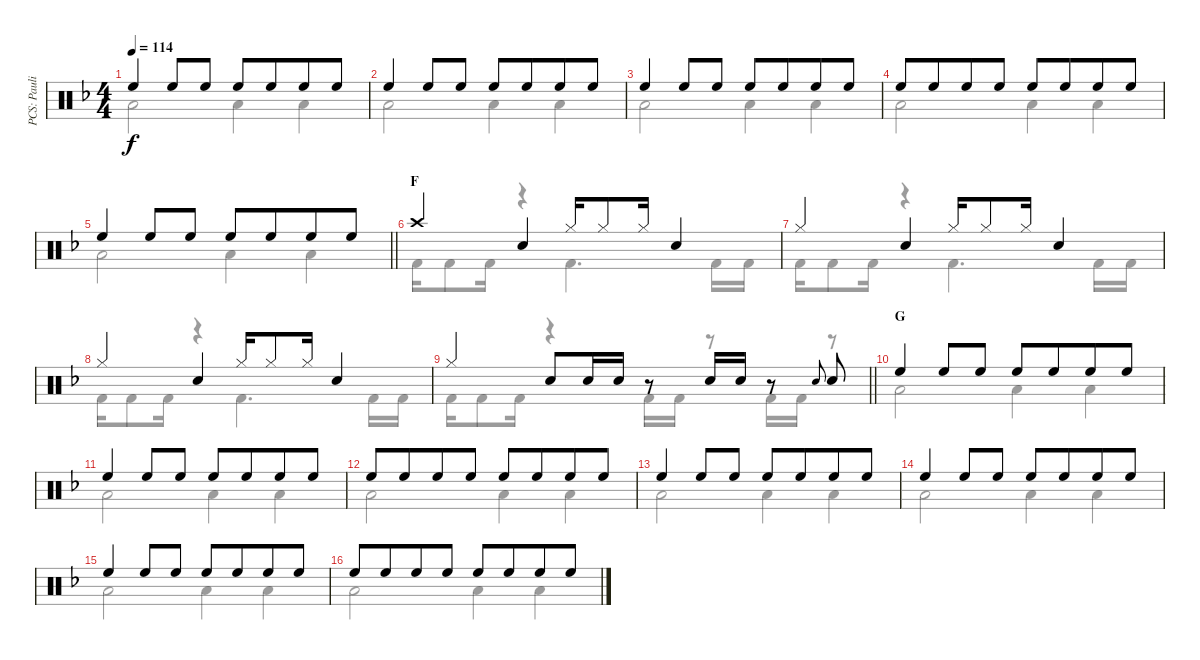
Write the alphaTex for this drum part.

\track ("PCS: Paulinho da Costa" "PCS: Pauli") {instrument percussion}
\staff {score}
\articulation defaults
\voice
\ts (4 4)
\tempo 114
\clef neutral
\ks f "High Floor Tom (hit)".4{dy f} "High Floor Tom (hit)".8 "High Floor Tom (hit)".8 "High Floor Tom (hit)".8 "High Floor Tom (hit)".8{beam merge} "High Floor Tom (hit)".8 "High Floor Tom (hit)".8
|
"High Floor Tom (hit)".4 "High Floor Tom (hit)".8 "High Floor Tom (hit)".8 "High Floor Tom (hit)".8 "High Floor Tom (hit)".8{beam merge} "High Floor Tom (hit)".8 "High Floor Tom (hit)".8 |
"High Floor Tom (hit)".4 "High Floor Tom (hit)".8 "High Floor Tom (hit)".8 "High Floor Tom (hit)".8 "High Floor Tom (hit)".8{beam merge} "High Floor Tom (hit)".8 "High Floor Tom (hit)".8 |
"High Floor Tom (hit)".8 "High Floor Tom (hit)".8{beam merge} "High Floor Tom (hit)".8 "High Floor Tom (hit)".8 "High Floor Tom (hit)".8{beam merge} "High Floor Tom (hit)".8{beam merge} "High Floor Tom (hit)".8 "High Floor Tom (hit)".8 |
\barLineRight lightlight "High Floor Tom (hit)".4 "High Floor Tom (hit)".8 "High Floor Tom (hit)".8 "High Floor Tom (hit)".8 "High Floor Tom (hit)".8{beam merge} "High Floor Tom (hit)".8 "High Floor Tom (hit)".8
|
\section ("" "F")
"Crash high (hit)".4 "Snare (hit) 2".4 "Hi-Hat (closed)".16 "Hi-Hat (closed)".8 "Hi-Hat (closed)".16 "Snare (hit) 2".4 |
"Hi-Hat (closed)".4 "Snare (hit) 2".4 "Hi-Hat (closed)".16 "Hi-Hat (closed)".8 "Hi-Hat (closed)".16 "Snare (hit) 2".4 |
"Hi-Hat (closed)".4 "Snare (hit) 2".4 "Hi-Hat (closed)".16 "Hi-Hat (closed)".8 "Hi-Hat (closed)".16 "Snare (hit) 2".4 |
\barLineRight lightlight "Hi-Hat (closed)".4 "Snare (hit) 2".8 "Electric Snare (hit)".16 "Electric Snare (hit)".16
r.8 "Electric Snare (hit)".16 "Electric Snare (hit)".16 r.8 "Electric Snare (hit)".8{gr onbeat} "Snare (hit) 2".8 |
\section ("" "G")
"High Floor Tom (hit)".4 "High Floor Tom (hit)".8 "High Floor Tom (hit)".8 "High Floor Tom (hit)".8 "High Floor Tom (hit)".8{beam merge} "High Floor Tom (hit)".8 "High Floor Tom (hit)".8 |
"High Floor Tom (hit)".4 "High Floor Tom (hit)".8 "High Floor Tom (hit)".8 "High Floor Tom (hit)".8 "High Floor Tom (hit)".8{beam merge} "High Floor Tom (hit)".8 "High Floor Tom (hit)".8 |
"High Floor Tom (hit)".8 "High Floor Tom (hit)".8{beam merge} "High Floor Tom (hit)".8 "High Floor Tom (hit)".8 "High Floor Tom (hit)".8{beam merge} "High Floor Tom (hit)".8{beam merge} "High Floor Tom (hit)".8 "High Floor Tom (hit)".8 |
"High Floor Tom (hit)".4 "High Floor Tom (hit)".8 "High Floor Tom (hit)".8 "High Floor Tom (hit)".8 "High Floor Tom (hit)".8{beam merge} "High Floor Tom (hit)".8 "High Floor Tom (hit)".8 |
"High Floor Tom (hit)".4 "High Floor Tom (hit)".8 "High Floor Tom (hit)".8 "High Floor Tom (hit)".8 "High Floor Tom (hit)".8{beam merge} "High Floor Tom (hit)".8 "High Floor Tom (hit)".8 |
"High Floor Tom (hit)".4 "High Floor Tom (hit)".8 "High Floor Tom (hit)".8 "High Floor Tom (hit)".8 "High Floor Tom (hit)".8{beam merge} "High Floor Tom (hit)".8 "High Floor Tom (hit)".8 |
"High Floor Tom (hit)".8 "High Floor Tom (hit)".8{beam merge} "High Floor Tom (hit)".8 "High Floor Tom (hit)".8 "High Floor Tom (hit)".8{beam merge} "High Floor Tom (hit)".8{beam merge} "High Floor Tom (hit)".8 "High Floor Tom (hit)".8
\voice
\clef neutral
\ottava regular
\simile none
\ks f "Low Floor Tom (hit)".2{dy f} "Low Floor Tom (hit)".4 "Low Floor Tom (hit)".4
|
"Low Floor Tom (hit)".2 "Low Floor Tom (hit)".4 "Low Floor Tom (hit)".4 |
"Low Floor Tom (hit)".2 "Low Floor Tom (hit)".4 "Low Floor Tom (hit)".4 |
"Low Floor Tom (hit)".2 "Low Floor Tom (hit)".4 "Low Floor Tom (hit)".4 |
\barLineRight lightlight "Low Floor Tom (hit)".2 "Low Floor Tom (hit)".4 "Low Floor Tom (hit)".4
|
"Kick (hit) 2".16 "Kick (hit) 2".8 "Kick (hit) 2".16 r.4 "Kick (hit) 2".4{d} "Kick (hit) 2".16 "Kick (hit) 2".16 |
"Kick (hit) 2".16 "Kick (hit) 2".8 "Kick (hit) 2".16 r.4 "Kick (hit) 2".4{d} "Kick (hit) 2".16 "Kick (hit) 2".16 |
"Kick (hit) 2".16 "Kick (hit) 2".8 "Kick (hit) 2".16 r.4 "Kick (hit) 2".4{d} "Kick (hit) 2".16 "Kick (hit) 2".16 |
\barLineRight lightlight "Kick (hit) 2".16 "Kick (hit) 2".8 "Kick (hit) 2".16
r.4 "Kick (hit) 2".16 "Kick (hit) 2".16 r.8 "Kick (hit) 2".16 "Kick (hit) 2".16 r.8 |
"Low Floor Tom (hit)".2 "Low Floor Tom (hit)".4 "Low Floor Tom (hit)".4 |
"Low Floor Tom (hit)".2 "Low Floor Tom (hit)".4 "Low Floor Tom (hit)".4 |
"Low Floor Tom (hit)".2 "Low Floor Tom (hit)".4 "Low Floor Tom (hit)".4 |
"Low Floor Tom (hit)".2 "Low Floor Tom (hit)".4 "Low Floor Tom (hit)".4 |
"Low Floor Tom (hit)".2 "Low Floor Tom (hit)".4 "Low Floor Tom (hit)".4 |
"Low Floor Tom (hit)".2 "Low Floor Tom (hit)".4 "Low Floor Tom (hit)".4 |
"Low Floor Tom (hit)".2 "Low Floor Tom (hit)".4 "Low Floor Tom (hit)".4
